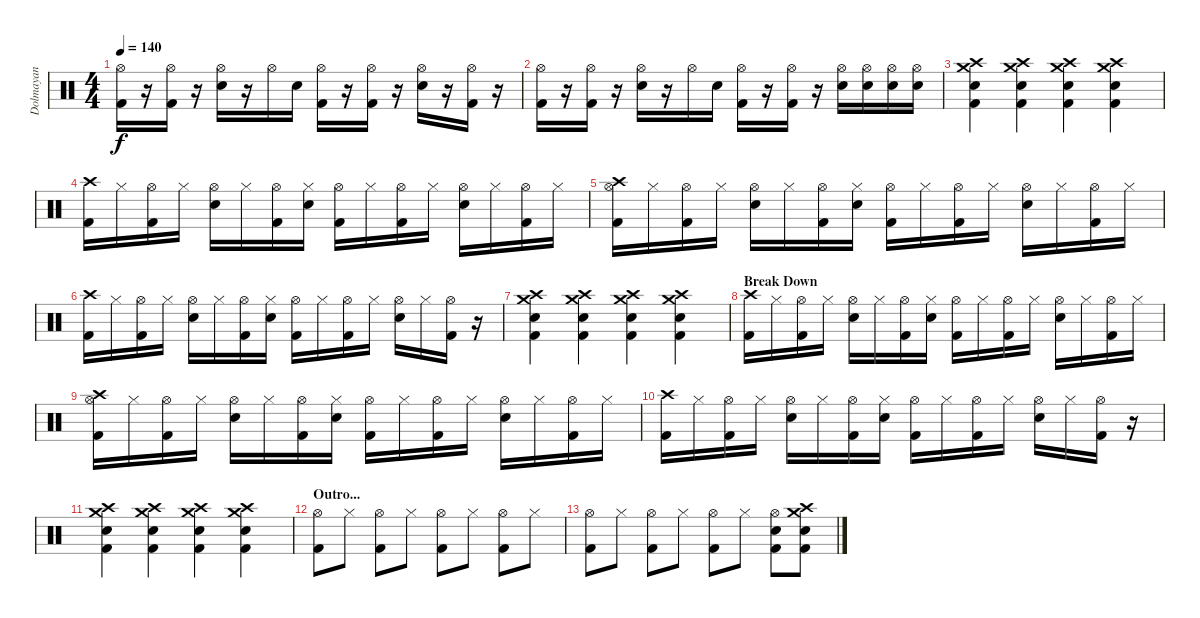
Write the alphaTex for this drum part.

\track ("Dolmayan" "Dolmayan") {instrument percussion}
\staff {score}
\articulation defaults
\ts (4 4)
\tempo 140
\clef neutral
\ks c
("Hi-Hat (open)" "Kick (hit) 2").16{dy f} r.16 ("Hi-Hat (open)" "Kick (hit) 2").16 r.16 ("Hi-Hat (open)" "Electric Snare (hit)").16 r.16 "Hi-Hat (open)".16 "Electric Snare (hit)".16 ("Hi-Hat (open)" "Kick (hit) 2").16 r.16 ("Hi-Hat (open)" "Kick (hit) 2").16 r.16 ("Hi-Hat (open)" "Electric Snare (hit)").16 r.16 ("Hi-Hat (open)" "Kick (hit) 2").16 r.16 |
("Hi-Hat (open)" "Kick (hit) 2").16 r.16 ("Hi-Hat (open)" "Kick (hit) 2").16 r.16 ("Hi-Hat (open)" "Electric Snare (hit)").16 r.16 "Hi-Hat (open)".16 "Electric Snare (hit)".16 ("Hi-Hat (open)" "Kick (hit) 2").16 r.16 ("Hi-Hat (open)" "Kick (hit) 2").16 r.16 ("Hi-Hat (open)" "Electric Snare (hit)").16 ("Hi-Hat (open)" "Electric Snare (hit)").16 ("Hi-Hat (open)" "Electric Snare (hit)").16 ("Hi-Hat (open)" "Electric Snare (hit)").16 |
("Crash high (hit)" "Crash medium (hit)" "Electric Snare (hit)" "Kick (hit) 2").4 ("Crash high (hit)" "Crash medium (hit)" "Electric Snare (hit)" "Kick (hit) 2").4 ("Crash high (hit)" "Crash medium (hit)" "Electric Snare (hit)" "Kick (hit) 2").4 ("Crash high (hit)" "Crash medium (hit)" "Electric Snare (hit)" "Kick (hit) 2").4 |
("Crash high (hit)" "Kick (hit) 2").16 "Hi-Hat (closed)".16 ("Hi-Hat (open)" "Kick (hit) 2").16 "Hi-Hat (closed)".16 ("Hi-Hat (open)" "Electric Snare (hit)").16 "Hi-Hat (closed)".16 ("Hi-Hat (open)" "Kick (hit) 2").16 ("Hi-Hat (closed)" "Electric Snare (hit)").16 ("Hi-Hat (open)" "Kick (hit) 2").16 "Hi-Hat (closed)".16 ("Hi-Hat (open)" "Kick (hit) 2").16 "Hi-Hat (closed)".16 ("Hi-Hat (open)" "Electric Snare (hit)").16 "Hi-Hat (closed)".16 ("Hi-Hat (open)" "Kick (hit) 2").16 "Hi-Hat (closed)".16 |
("Crash high (hit)" "Hi-Hat (open)" "Kick (hit) 2").16 "Hi-Hat (closed)".16 ("Hi-Hat (open)" "Kick (hit) 2").16 "Hi-Hat (closed)".16 ("Hi-Hat (open)" "Electric Snare (hit)").16 "Hi-Hat (closed)".16 ("Hi-Hat (open)" "Kick (hit) 2").16 ("Hi-Hat (closed)" "Electric Snare (hit)").16 ("Hi-Hat (open)" "Kick (hit) 2").16 "Hi-Hat (closed)".16 ("Hi-Hat (open)" "Kick (hit) 2").16 "Hi-Hat (closed)".16 ("Hi-Hat (open)" "Electric Snare (hit)").16 "Hi-Hat (closed)".16 ("Hi-Hat (open)" "Kick (hit) 2").16 "Hi-Hat (closed)".16 |
("Crash high (hit)" "Kick (hit) 2").16 "Hi-Hat (closed)".16 ("Hi-Hat (open)" "Kick (hit) 2").16 "Hi-Hat (closed)".16 ("Hi-Hat (open)" "Electric Snare (hit)").16 "Hi-Hat (closed)".16 ("Hi-Hat (open)" "Kick (hit) 2").16 ("Hi-Hat (closed)" "Electric Snare (hit)").16 ("Hi-Hat (open)" "Kick (hit) 2").16 "Hi-Hat (closed)".16 ("Hi-Hat (open)" "Kick (hit) 2").16 "Hi-Hat (closed)".16 ("Hi-Hat (open)" "Electric Snare (hit)").16 "Hi-Hat (closed)".16 ("Hi-Hat (open)" "Kick (hit) 2").16 r.16 |
("Crash high (hit)" "Crash medium (hit)" "Electric Snare (hit)" "Kick (hit) 2").4 ("Crash high (hit)" "Crash medium (hit)" "Electric Snare (hit)" "Kick (hit) 2").4 ("Crash high (hit)" "Crash medium (hit)" "Electric Snare (hit)" "Kick (hit) 2").4 ("Crash high (hit)" "Crash medium (hit)" "Electric Snare (hit)" "Kick (hit) 2").4 |
\section ("" "Break Down")
("Crash high (hit)" "Kick (hit) 2").16 "Hi-Hat (closed)".16 ("Hi-Hat (open)" "Kick (hit) 2").16 "Hi-Hat (closed)".16 ("Hi-Hat (open)" "Electric Snare (hit)").16 "Hi-Hat (closed)".16 ("Hi-Hat (open)" "Kick (hit) 2").16 ("Hi-Hat (closed)" "Electric Snare (hit)").16 ("Hi-Hat (open)" "Kick (hit) 2").16 "Hi-Hat (closed)".16 ("Hi-Hat (open)" "Kick (hit) 2").16 "Hi-Hat (closed)".16 ("Hi-Hat (open)" "Electric Snare (hit)").16 "Hi-Hat (closed)".16 ("Hi-Hat (open)" "Kick (hit) 2").16 "Hi-Hat (closed)".16 |
("Crash high (hit)" "Hi-Hat (open)" "Kick (hit) 2").16 "Hi-Hat (closed)".16 ("Hi-Hat (open)" "Kick (hit) 2").16 "Hi-Hat (closed)".16 ("Hi-Hat (open)" "Electric Snare (hit)").16 "Hi-Hat (closed)".16 ("Hi-Hat (open)" "Kick (hit) 2").16 ("Hi-Hat (closed)" "Electric Snare (hit)").16 ("Hi-Hat (open)" "Kick (hit) 2").16 "Hi-Hat (closed)".16 ("Hi-Hat (open)" "Kick (hit) 2").16 "Hi-Hat (closed)".16 ("Hi-Hat (open)" "Electric Snare (hit)").16 "Hi-Hat (closed)".16 ("Hi-Hat (open)" "Kick (hit) 2").16 "Hi-Hat (closed)".16 |
("Crash high (hit)" "Kick (hit) 2").16 "Hi-Hat (closed)".16 ("Hi-Hat (open)" "Kick (hit) 2").16 "Hi-Hat (closed)".16 ("Hi-Hat (open)" "Electric Snare (hit)").16 "Hi-Hat (closed)".16 ("Hi-Hat (open)" "Kick (hit) 2").16 ("Hi-Hat (closed)" "Electric Snare (hit)").16 ("Hi-Hat (open)" "Kick (hit) 2").16 "Hi-Hat (closed)".16 ("Hi-Hat (open)" "Kick (hit) 2").16 "Hi-Hat (closed)".16 ("Hi-Hat (open)" "Electric Snare (hit)").16 "Hi-Hat (closed)".16 ("Hi-Hat (open)" "Kick (hit) 2").16 r.16 |
("Crash high (hit)" "Crash medium (hit)" "Electric Snare (hit)" "Kick (hit) 2").4 ("Crash high (hit)" "Crash medium (hit)" "Electric Snare (hit)" "Kick (hit) 2").4 ("Crash high (hit)" "Crash medium (hit)" "Electric Snare (hit)" "Kick (hit) 2").4 ("Crash high (hit)" "Crash medium (hit)" "Electric Snare (hit)" "Kick (hit) 2").4 |
\section ("" "Outro...")
("Hi-Hat (open)" "Kick (hit) 2").8 "Hi-Hat (closed)".8 ("Hi-Hat (open)" "Kick (hit) 2").8 "Hi-Hat (closed)".8 ("Hi-Hat (open)" "Kick (hit) 2").8 "Hi-Hat (closed)".8 ("Hi-Hat (open)" "Kick (hit) 2").8 "Hi-Hat (closed)".8 |
("Hi-Hat (open)" "Kick (hit) 2").8 "Hi-Hat (closed)".8 ("Hi-Hat (open)" "Kick (hit) 2").8 "Hi-Hat (closed)".8 ("Hi-Hat (open)" "Kick (hit) 2").8 "Hi-Hat (closed)".8 ("Hi-Hat (open)" "Electric Snare (hit)" "Kick (hit) 2").8 ("Crash high (hit)" "Crash medium (hit)" "Electric Snare (hit)" "Kick (hit) 2").8
